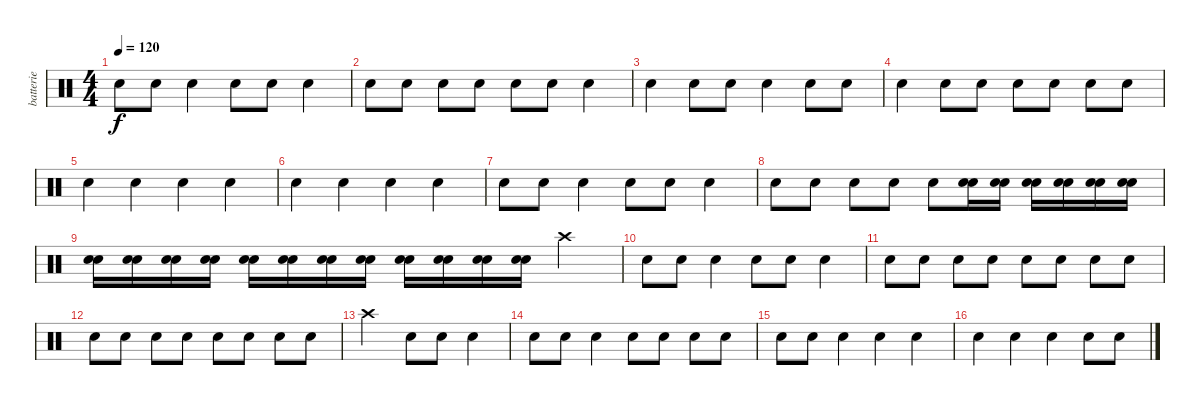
\track ("batterie" "batterie") {instrument percussion}
\staff {score}
\articulation defaults
\ts (4 4)
\tempo 120
\clef neutral
\ks c "Snare (hit) 2".8{dy f} "Snare (hit) 2".8 "Electric Snare (hit)".4 "Snare (hit) 2".8 "Snare (hit) 2".8 "Electric Snare (hit)".4
|
"Snare (hit) 2".8 "Snare (hit) 2".8 "Electric Snare (hit)".8 "Electric Snare (hit)".8 "Snare (hit) 2".8 "Snare (hit) 2".8 "Electric Snare (hit)".4 |
"Snare (hit) 2".4 "Snare (hit) 2".8 "Snare (hit) 2".8 "Electric Snare (hit)".4 "Snare (hit) 2".8 "Snare (hit) 2".8 |
"Electric Snare (hit)".4 "Snare (hit) 2".8 "Snare (hit) 2".8 "Electric Snare (hit)".8 "Electric Snare (hit)".8 "Snare (hit) 2".8 "Snare (hit) 2".8 |
"Electric Snare (hit)".4 "Snare (hit) 2".4 "Electric Snare (hit)".4 "Snare (hit) 2".4 |
"Electric Snare (hit)".4 "Snare (hit) 2".4 "Electric Snare (hit)".4 "Snare (hit) 2".4 |
"Snare (hit) 2".8 "Snare (hit) 2".8 "Electric Snare (hit)".4 "Snare (hit) 2".8 "Snare (hit) 2".8 "Electric Snare (hit)".4 |
"Snare (hit) 2".8 "Snare (hit) 2".8 "Electric Snare (hit)".8 "Electric Snare (hit)".8 "Snare (hit) 2".8 ("Snare (hit) 2" "Electric Snare (hit)").16 ("Snare (hit) 2" "Electric Snare (hit)").16 ("Snare (hit) 2" "Electric Snare (hit)").16 ("Snare (hit) 2" "Electric Snare (hit)").16 ("Snare (hit) 2" "Electric Snare (hit)").16 ("Snare (hit) 2" "Electric Snare (hit)").16 |
("Snare (hit) 2" "Electric Snare (hit)").16 ("Snare (hit) 2" "Electric Snare (hit)").16 ("Snare (hit) 2" "Electric Snare (hit)").16 ("Snare (hit) 2" "Electric Snare (hit)").16 ("Snare (hit) 2" "Electric Snare (hit)").16 ("Snare (hit) 2" "Electric Snare (hit)").16 ("Snare (hit) 2" "Electric Snare (hit)").16 ("Snare (hit) 2" "Electric Snare (hit)").16 ("Snare (hit) 2" "Electric Snare (hit)").16 ("Snare (hit) 2" "Electric Snare (hit)").16 ("Snare (hit) 2" "Electric Snare (hit)").16 ("Snare (hit) 2" "Electric Snare (hit)").16 "Crash high (hit)".4 |
"Snare (hit) 2".8 "Snare (hit) 2".8 "Electric Snare (hit)".4 "Snare (hit) 2".8 "Snare (hit) 2".8 "Electric Snare (hit)".4 |
"Snare (hit) 2".8 "Snare (hit) 2".8 "Electric Snare (hit)".8 "Electric Snare (hit)".8 "Snare (hit) 2".8 "Snare (hit) 2".8 "Electric Snare (hit)".8 "Snare (hit) 2".8 |
"Electric Snare (hit)".8 "Snare (hit) 2".8 "Electric Snare (hit)".8 "Snare (hit) 2".8 "Electric Snare (hit)".8 "Snare (hit) 2".8 "Electric Snare (hit)".8 "Snare (hit) 2".8 |
"Crash high (hit)".2 "Snare (hit) 2".8 "Snare (hit) 2".8 "Electric Snare (hit)".4 |
"Snare (hit) 2".8 "Snare (hit) 2".8 "Electric Snare (hit)".4 "Snare (hit) 2".8 "Snare (hit) 2".8 "Electric Snare (hit)".8 "Electric Snare (hit)".8 |
"Snare (hit) 2".8 "Snare (hit) 2".8 "Electric Snare (hit)".4 "Snare (hit) 2".4 "Electric Snare (hit)".4 |
"Snare (hit) 2".4 "Electric Snare (hit)".4 "Snare (hit) 2".4 "Snare (hit) 2".8 "Snare (hit) 2".8
